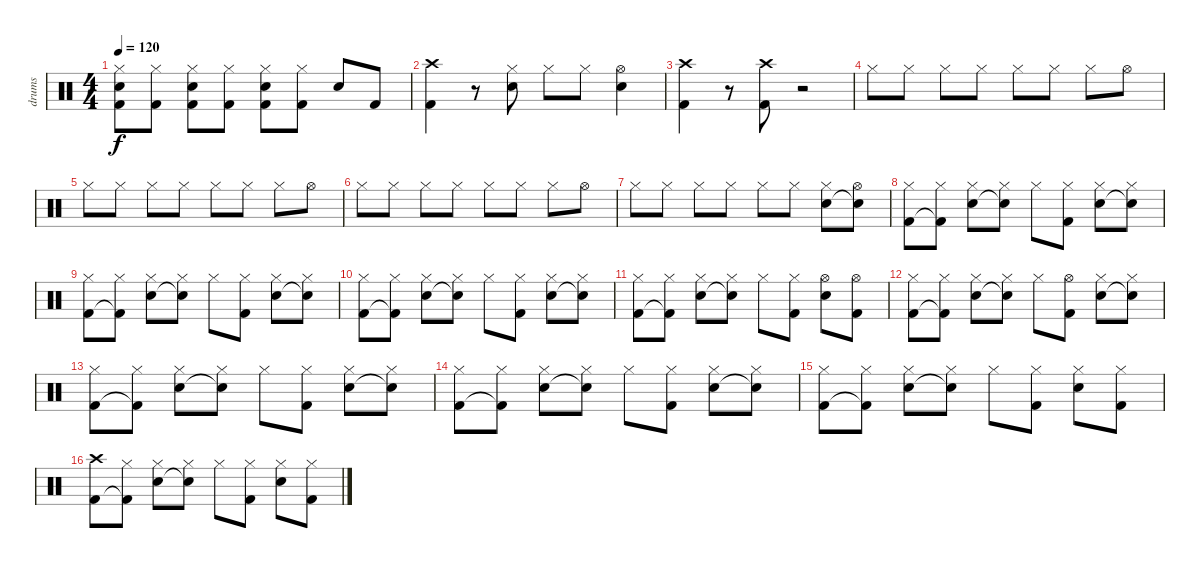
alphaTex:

\track ("drums" "drums") {instrument percussion}
\staff {score}
\articulation defaults
\ts (4 4)
\tempo 120
\clef neutral
\ks c
("Hi-Hat (closed)" "Snare (hit) 2" "Kick (hit) 2").8{dy f} ("Hi-Hat (closed)" "Kick (hit) 2").8 ("Hi-Hat (closed)" "Snare (hit) 2" "Kick (hit) 2").8 ("Hi-Hat (closed)" "Kick (hit) 2").8 ("Hi-Hat (closed)" "Snare (hit) 2" "Kick (hit) 2").8 ("Hi-Hat (closed)" "Kick (hit) 2").8 "Snare (hit) 2".8 "Kick (hit) 2".8 |
("Crash high (hit)" "Kick (hit) 2").4 r.8 ("Hi-Hat (closed)" "Snare (hit) 2").8 "Hi-Hat (closed)".8 "Hi-Hat (closed)".8 ("Hi-Hat (open)" "Snare (hit) 2").4 |
("Crash high (hit)" "Kick (hit) 2").4 r.8 ("Crash high (hit)" "Kick (hit) 2").8 r.2 |
"Hi-Hat (closed)".8 "Hi-Hat (closed)".8 "Hi-Hat (closed)".8 "Hi-Hat (closed)".8 "Hi-Hat (closed)".8 "Hi-Hat (closed)".8 "Hi-Hat (closed)".8 "Hi-Hat (open)".8 |
"Hi-Hat (closed)".8 "Hi-Hat (closed)".8 "Hi-Hat (closed)".8 "Hi-Hat (closed)".8 "Hi-Hat (closed)".8 "Hi-Hat (closed)".8 "Hi-Hat (closed)".8 "Hi-Hat (open)".8 |
"Hi-Hat (closed)".8 "Hi-Hat (closed)".8 "Hi-Hat (closed)".8 "Hi-Hat (closed)".8 "Hi-Hat (closed)".8 "Hi-Hat (closed)".8 "Hi-Hat (closed)".8 "Hi-Hat (open)".8 |
"Hi-Hat (closed)".8 "Hi-Hat (closed)".8 "Hi-Hat (closed)".8 "Hi-Hat (closed)".8 "Hi-Hat (closed)".8 "Hi-Hat (closed)".8 ("Hi-Hat (closed)" "Snare (hit) 2").8 ("Hi-Hat (open)" "Snare (hit) 2"{t}).8 |
("Hi-Hat (closed)" "Kick (hit) 2").8 ("Hi-Hat (closed)" "Kick (hit) 2"{t}).8 ("Hi-Hat (closed)" "Snare (hit) 2").8 ("Hi-Hat (closed)" "Snare (hit) 2"{t}).8 "Hi-Hat (closed)".8 ("Hi-Hat (closed)" "Kick (hit) 2").8 ("Hi-Hat (closed)" "Snare (hit) 2").8 ("Hi-Hat (closed)" "Snare (hit) 2"{t}).8 |
("Hi-Hat (closed)" "Kick (hit) 2").8 ("Hi-Hat (closed)" "Kick (hit) 2"{t}).8 ("Hi-Hat (closed)" "Snare (hit) 2").8 ("Hi-Hat (closed)" "Snare (hit) 2"{t}).8 "Hi-Hat (closed)".8 ("Hi-Hat (closed)" "Kick (hit) 2").8 ("Hi-Hat (closed)" "Snare (hit) 2").8 ("Hi-Hat (closed)" "Snare (hit) 2"{t}).8 |
("Hi-Hat (closed)" "Kick (hit) 2").8 ("Hi-Hat (closed)" "Kick (hit) 2"{t}).8 ("Hi-Hat (closed)" "Snare (hit) 2").8 ("Hi-Hat (closed)" "Snare (hit) 2"{t}).8 "Hi-Hat (closed)".8 ("Hi-Hat (closed)" "Kick (hit) 2").8 ("Hi-Hat (closed)" "Snare (hit) 2").8 ("Hi-Hat (closed)" "Snare (hit) 2"{t}).8 |
("Hi-Hat (closed)" "Kick (hit) 2").8 ("Hi-Hat (closed)" "Kick (hit) 2"{t}).8 ("Hi-Hat (closed)" "Snare (hit) 2").8 ("Hi-Hat (closed)" "Snare (hit) 2"{t}).8 "Hi-Hat (closed)".8 ("Hi-Hat (closed)" "Kick (hit) 2").8 ("Hi-Hat (open)" "Snare (hit) 2").8 ("Hi-Hat (open)" "Kick (hit) 2").8 |
("Hi-Hat (closed)" "Kick (hit) 2").8 ("Hi-Hat (closed)" "Kick (hit) 2"{t}).8 ("Hi-Hat (closed)" "Snare (hit) 2").8 ("Hi-Hat (closed)" "Snare (hit) 2"{t}).8 "Hi-Hat (closed)".8 ("Hi-Hat (open)" "Kick (hit) 2").8 ("Hi-Hat (closed)" "Snare (hit) 2").8 ("Hi-Hat (closed)" "Snare (hit) 2"{t}).8 |
("Hi-Hat (closed)" "Kick (hit) 2").8 ("Hi-Hat (closed)" "Kick (hit) 2"{t}).8 ("Hi-Hat (closed)" "Snare (hit) 2").8 ("Hi-Hat (closed)" "Snare (hit) 2"{t}).8 "Hi-Hat (closed)".8 ("Hi-Hat (closed)" "Kick (hit) 2").8 ("Hi-Hat (closed)" "Snare (hit) 2").8 ("Hi-Hat (closed)" "Snare (hit) 2"{t}).8 |
("Hi-Hat (closed)" "Kick (hit) 2").8 ("Hi-Hat (closed)" "Kick (hit) 2"{t}).8 ("Hi-Hat (closed)" "Snare (hit) 2").8 ("Hi-Hat (closed)" "Snare (hit) 2"{t}).8 "Hi-Hat (closed)".8 ("Hi-Hat (closed)" "Kick (hit) 2").8 ("Hi-Hat (closed)" "Snare (hit) 2").8 ("Hi-Hat (closed)" "Snare (hit) 2"{t}).8 |
("Hi-Hat (closed)" "Kick (hit) 2").8 ("Hi-Hat (closed)" "Kick (hit) 2"{t}).8 ("Hi-Hat (closed)" "Snare (hit) 2").8 ("Hi-Hat (closed)" "Snare (hit) 2"{t}).8 "Hi-Hat (closed)".8 ("Hi-Hat (closed)" "Kick (hit) 2").8 ("Hi-Hat (closed)" "Snare (hit) 2").8 ("Hi-Hat (closed)" "Kick (hit) 2").8 |
("Crash high (hit)" "Kick (hit) 2").8 ("Hi-Hat (closed)" "Kick (hit) 2"{t}).8 ("Hi-Hat (closed)" "Snare (hit) 2").8 ("Hi-Hat (closed)" "Snare (hit) 2"{t}).8 "Hi-Hat (closed)".8 ("Hi-Hat (closed)" "Kick (hit) 2").8 ("Hi-Hat (closed)" "Snare (hit) 2").8 ("Hi-Hat (closed)" "Kick (hit) 2").8
